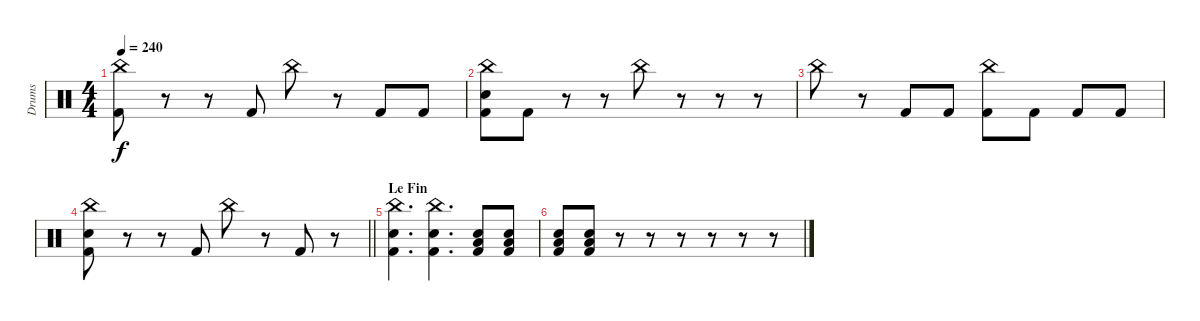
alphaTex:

\track ("Drums" "Drums") {instrument percussion}
\staff {score}
\articulation defaults
\ts (4 4)
\tempo 240
\clef neutral
\ks c
("China (hit)" "Kick (hit) 2").8{dy f} r.8 r.8 "Kick (hit) 2".8 "China (hit)".8 r.8 "Kick (hit) 2".8 "Kick (hit) 2".8 |
("China (hit)" "Electric Snare (hit)" "Kick (hit) 2").8 "Kick (hit) 2".8 r.8 r.8 "China (hit)".8 r.8 r.8 r.8 |
"China (hit)".8 r.8 "Kick (hit) 2".8 "Kick (hit) 2".8 ("China (hit)" "Kick (hit) 2").8 "Kick (hit) 2".8 "Kick (hit) 2".8 "Kick (hit) 2".8 |
\barLineRight lightlight
("China (hit)" "Electric Snare (hit)" "Kick (hit) 2").8 r.8 r.8 "Kick (hit) 2".8 "China (hit)".8 r.8 "Kick (hit) 2".8 r.8 |
\section ("" "Le Fin")
("China (hit)" "Electric Snare (hit)" "Kick (hit) 2").4{d} ("China (hit)" "Electric Snare (hit)" "Kick (hit) 2").4{d} ("Electric Snare (hit)" "Low Floor Tom (hit)" "Kick (hit) 2").8 ("Electric Snare (hit)" "Low Floor Tom (hit)" "Kick (hit) 2").8 |
("Electric Snare (hit)" "Low Floor Tom (hit)" "Kick (hit) 2").8 ("Electric Snare (hit)" "Low Floor Tom (hit)" "Kick (hit) 2").8 r.8 r.8 r.8 r.8 r.8 r.8
